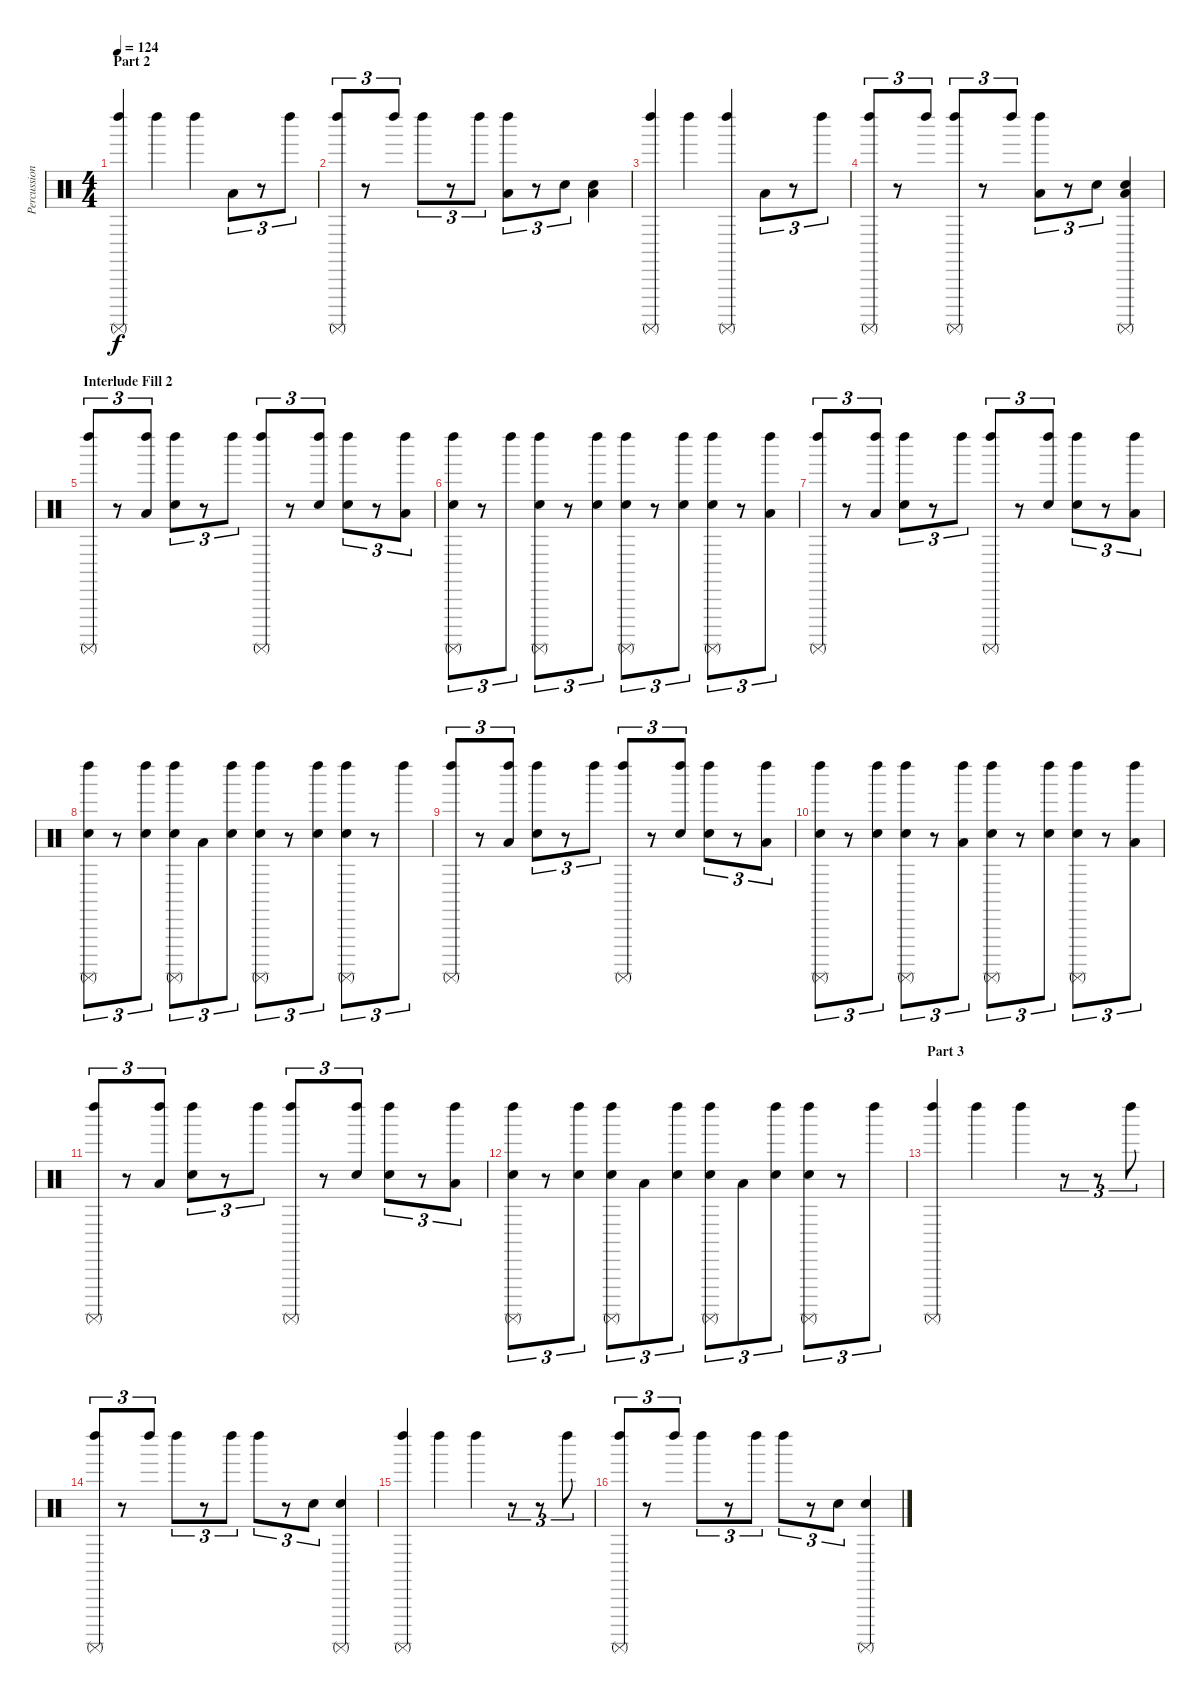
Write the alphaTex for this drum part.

\track ("Percussion" "Percussion") {instrument percussion}
\staff {score}
\articulation defaults
\ts (4 4)
\section ("" "Part 2")
\tempo 124
\clef neutral
\ks c
("Left Maraca (hit)" "Surdo (mute)").4{dy f} "Left Maraca (hit)".4 "Left Maraca (hit)".4 "Low Floor Tom (hit)".8{tu (3 2)} r.8{tu (3 2)} "Left Maraca (hit)".8{tu (3 2)} |
("Left Maraca (hit)" "Surdo (mute)").8{tu (3 2)} r.8{tu (3 2)} "Left Maraca (hit)".8{tu (3 2)} "Left Maraca (hit)".8{tu (3 2)} r.8{tu (3 2)} "Left Maraca (hit)".8{tu (3 2)} ("Left Maraca (hit)" "Low Floor Tom (hit)").8{tu (3 2)} r.8{tu (3 2)} "Hand Clap (hit)".8{tu (3 2)} ("Hand Clap (hit)" "Low Floor Tom (hit)").4 |
("Left Maraca (hit)" "Surdo (mute)").4 "Left Maraca (hit)".4 ("Left Maraca (hit)" "Surdo (mute)").4 "Low Floor Tom (hit)".8{tu (3 2)} r.8{tu (3 2)} "Left Maraca (hit)".8{tu (3 2)} |
("Left Maraca (hit)" "Surdo (mute)").8{tu (3 2)} r.8{tu (3 2)} "Left Maraca (hit)".8{tu (3 2)} ("Left Maraca (hit)" "Surdo (mute)").8{tu (3 2)} r.8{tu (3 2)} "Left Maraca (hit)".8{tu (3 2)} ("Left Maraca (hit)" "Low Floor Tom (hit)").8{tu (3 2)} r.8{tu (3 2)} "Hand Clap (hit)".8{tu (3 2)} ("Hand Clap (hit)" "Low Floor Tom (hit)" "Surdo (mute)").4 |
\section ("" "Interlude Fill 2")
("Left Maraca (hit)" "Surdo (mute)").8{tu (3 2)} r.8{tu (3 2)} ("Left Maraca (hit)" "Low Floor Tom (hit)").8{tu (3 2)} ("Left Maraca (hit)" "Hand Clap (hit)").8{tu (3 2)} r.8{tu (3 2)} "Left Maraca (hit)".8{tu (3 2)} ("Left Maraca (hit)" "Surdo (mute)").8{tu (3 2)} r.8{tu (3 2)} ("Left Maraca (hit)" "Hand Clap (hit)").8{tu (3 2)} ("Left Maraca (hit)" "Hand Clap (hit)").8{tu (3 2)} r.8{tu (3 2)} ("Left Maraca (hit)" "Low Floor Tom (hit)").8{tu (3 2)} |
("Left Maraca (hit)" "Hand Clap (hit)" "Surdo (mute)").8{tu (3 2)} r.8{tu (3 2)} "Left Maraca (hit)".8{tu (3 2)} ("Left Maraca (hit)" "Hand Clap (hit)" "Surdo (mute)").8{tu (3 2)} r.8{tu (3 2)} ("Left Maraca (hit)" "Hand Clap (hit)").8{tu (3 2)} ("Left Maraca (hit)" "Hand Clap (hit)" "Surdo (mute)").8{tu (3 2)} r.8{tu (3 2)} ("Left Maraca (hit)" "Hand Clap (hit)").8{tu (3 2)} ("Left Maraca (hit)" "Hand Clap (hit)" "Surdo (mute)").8{tu (3 2)} r.8{tu (3 2)} ("Left Maraca (hit)" "Low Floor Tom (hit)").8{tu (3 2)} |
("Left Maraca (hit)" "Surdo (mute)").8{tu (3 2)} r.8{tu (3 2)} ("Left Maraca (hit)" "Low Floor Tom (hit)").8{tu (3 2)} ("Left Maraca (hit)" "Hand Clap (hit)").8{tu (3 2)} r.8{tu (3 2)} "Left Maraca (hit)".8{tu (3 2)} ("Left Maraca (hit)" "Surdo (mute)").8{tu (3 2)} r.8{tu (3 2)} ("Left Maraca (hit)" "Hand Clap (hit)").8{tu (3 2)} ("Left Maraca (hit)" "Hand Clap (hit)").8{tu (3 2)} r.8{tu (3 2)} ("Left Maraca (hit)" "Low Floor Tom (hit)").8{tu (3 2)} |
("Left Maraca (hit)" "Hand Clap (hit)" "Surdo (mute)").8{tu (3 2)} r.8{tu (3 2)} ("Left Maraca (hit)" "Hand Clap (hit)").8{tu (3 2)} ("Left Maraca (hit)" "Hand Clap (hit)" "Surdo (mute)").8{tu (3 2)} "Low Floor Tom (hit)".8{tu (3 2)} ("Left Maraca (hit)" "Hand Clap (hit)").8{tu (3 2)} ("Left Maraca (hit)" "Hand Clap (hit)" "Surdo (mute)").8{tu (3 2)} r.8{tu (3 2)} ("Left Maraca (hit)" "Hand Clap (hit)").8{tu (3 2)} ("Left Maraca (hit)" "Hand Clap (hit)" "Surdo (mute)").8{tu (3 2)} r.8{tu (3 2)} "Left Maraca (hit)".8{tu (3 2)} |
("Left Maraca (hit)" "Surdo (mute)").8{tu (3 2)} r.8{tu (3 2)} ("Left Maraca (hit)" "Low Floor Tom (hit)").8{tu (3 2)} ("Left Maraca (hit)" "Hand Clap (hit)").8{tu (3 2)} r.8{tu (3 2)} "Left Maraca (hit)".8{tu (3 2)} ("Left Maraca (hit)" "Surdo (mute)").8{tu (3 2)} r.8{tu (3 2)} ("Left Maraca (hit)" "Hand Clap (hit)").8{tu (3 2)} ("Left Maraca (hit)" "Hand Clap (hit)").8{tu (3 2)} r.8{tu (3 2)} ("Left Maraca (hit)" "Low Floor Tom (hit)").8{tu (3 2)} |
("Left Maraca (hit)" "Hand Clap (hit)" "Surdo (mute)").8{tu (3 2)} r.8{tu (3 2)} ("Left Maraca (hit)" "Hand Clap (hit)").8{tu (3 2)} ("Left Maraca (hit)" "Hand Clap (hit)" "Surdo (mute)").8{tu (3 2)} r.8{tu (3 2)} ("Left Maraca (hit)" "Low Floor Tom (hit)").8{tu (3 2)} ("Left Maraca (hit)" "Hand Clap (hit)" "Surdo (mute)").8{tu (3 2)} r.8{tu (3 2)} ("Left Maraca (hit)" "Hand Clap (hit)").8{tu (3 2)} ("Left Maraca (hit)" "Hand Clap (hit)" "Surdo (mute)").8{tu (3 2)} r.8{tu (3 2)} ("Left Maraca (hit)" "Low Floor Tom (hit)").8{tu (3 2)} |
("Left Maraca (hit)" "Surdo (mute)").8{tu (3 2)} r.8{tu (3 2)} ("Left Maraca (hit)" "Low Floor Tom (hit)").8{tu (3 2)} ("Left Maraca (hit)" "Hand Clap (hit)").8{tu (3 2)} r.8{tu (3 2)} "Left Maraca (hit)".8{tu (3 2)} ("Left Maraca (hit)" "Surdo (mute)").8{tu (3 2)} r.8{tu (3 2)} ("Left Maraca (hit)" "Hand Clap (hit)").8{tu (3 2)} ("Left Maraca (hit)" "Hand Clap (hit)").8{tu (3 2)} r.8{tu (3 2)} ("Left Maraca (hit)" "Low Floor Tom (hit)").8{tu (3 2)} |
("Left Maraca (hit)" "Hand Clap (hit)" "Surdo (mute)").8{tu (3 2)} r.8{tu (3 2)} ("Left Maraca (hit)" "Hand Clap (hit)").8{tu (3 2)} ("Left Maraca (hit)" "Hand Clap (hit)" "Surdo (mute)").8{tu (3 2)} "Low Floor Tom (hit)".8{tu (3 2)} ("Left Maraca (hit)" "Hand Clap (hit)").8{tu (3 2)} ("Left Maraca (hit)" "Hand Clap (hit)" "Surdo (mute)").8{tu (3 2)} "Low Floor Tom (hit)".8{tu (3 2)} ("Left Maraca (hit)" "Hand Clap (hit)").8{tu (3 2)} ("Left Maraca (hit)" "Hand Clap (hit)" "Surdo (mute)").8{tu (3 2)} r.8{tu (3 2)} "Left Maraca (hit)".8{tu (3 2)} |
\section ("" "Part 3")
("Left Maraca (hit)" "Surdo (mute)").4 "Left Maraca (hit)".4 "Left Maraca (hit)".4 r.8{tu (3 2)} r.8{tu (3 2)} "Left Maraca (hit)".8{tu (3 2)} |
("Left Maraca (hit)" "Surdo (mute)").8{tu (3 2)} r.8{tu (3 2)} "Left Maraca (hit)".8{tu (3 2)} "Left Maraca (hit)".8{tu (3 2)} r.8{tu (3 2)} "Left Maraca (hit)".8{tu (3 2)} "Left Maraca (hit)".8{tu (3 2)} r.8{tu (3 2)} "Hand Clap (hit)".8{tu (3 2)} ("Hand Clap (hit)" "Surdo (mute)").4 |
("Left Maraca (hit)" "Surdo (mute)").4 "Left Maraca (hit)".4 "Left Maraca (hit)".4 r.8{tu (3 2)} r.8{tu (3 2)} "Left Maraca (hit)".8{tu (3 2)} |
("Left Maraca (hit)" "Surdo (mute)").8{tu (3 2)} r.8{tu (3 2)} "Left Maraca (hit)".8{tu (3 2)} "Left Maraca (hit)".8{tu (3 2)} r.8{tu (3 2)} "Left Maraca (hit)".8{tu (3 2)} "Left Maraca (hit)".8{tu (3 2)} r.8{tu (3 2)} "Hand Clap (hit)".8{tu (3 2)} ("Hand Clap (hit)" "Surdo (mute)").4
